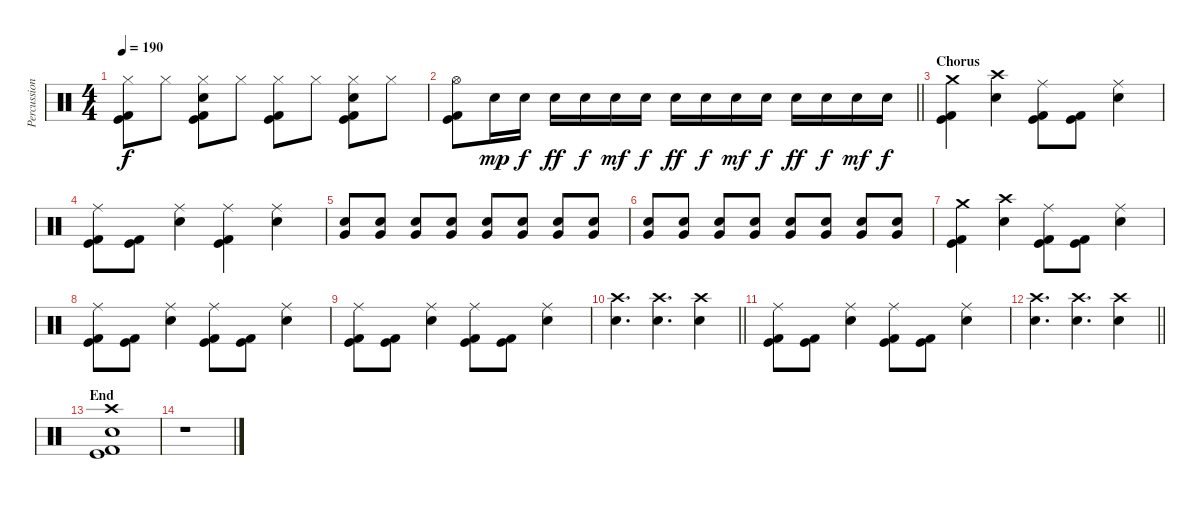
\track ("Percussion" "Percussion") {instrument percussion}
\staff {score}
\articulation defaults
\ts (4 4)
\tempo 190
\clef neutral
\ks c
("Hi-Hat (closed)" "Kick (hit)" "Kick (hit) 2").8{dy f} "Hi-Hat (closed)".8 ("Hi-Hat (closed)" "Electric Snare (hit)" "Kick (hit)" "Kick (hit) 2").8 "Hi-Hat (closed)".8 ("Hi-Hat (closed)" "Kick (hit)" "Kick (hit) 2").8 "Hi-Hat (closed)".8 ("Hi-Hat (closed)" "Electric Snare (hit)" "Kick (hit)" "Kick (hit) 2").8 "Hi-Hat (closed)".8 |
\barLineRight lightlight
("Hi-Hat (open)" "Kick (hit)" "Kick (hit) 2").8 "Electric Snare (hit)".16{dy mp} "Electric Snare (hit)".16{dy f} "Electric Snare (hit)".16{dy ff} "Electric Snare (hit)".16{dy f} "Electric Snare (hit)".16{dy mf} "Electric Snare (hit)".16{dy f} "Electric Snare (hit)".16{dy ff} "Electric Snare (hit)".16{dy f} "Electric Snare (hit)".16{dy mf} "Electric Snare (hit)".16{dy f} "Electric Snare (hit)".16{dy ff} "Electric Snare (hit)".16{dy f} "Electric Snare (hit)".16{dy mf} "Electric Snare (hit)".16{dy f} |
\section ("" "Chorus")
("Crash medium (hit)" "Kick (hit)" "Kick (hit) 2").4 ("Crash high (hit)" "Electric Snare (hit)").4 ("Ride (middle)" "Kick (hit)" "Kick (hit) 2").8 ("Kick (hit)" "Kick (hit) 2").8 ("Ride (middle)" "Electric Snare (hit)").4 |
("Ride (middle)" "Kick (hit)" "Kick (hit) 2").8 ("Kick (hit)" "Kick (hit) 2").8 ("Ride (middle)" "Electric Snare (hit)").4 ("Ride (middle)" "Kick (hit)" "Kick (hit) 2").4 ("Ride (middle)" "Electric Snare (hit)").4 |
("Very Low Tom (hit)" "Electric Snare (hit)").8 ("Very Low Tom (hit)" "Electric Snare (hit)").8 ("Very Low Tom (hit)" "Electric Snare (hit)").8 ("Very Low Tom (hit)" "Electric Snare (hit)").8 ("Very Low Tom (hit)" "Electric Snare (hit)").8 ("Very Low Tom (hit)" "Electric Snare (hit)").8 ("Very Low Tom (hit)" "Electric Snare (hit)").8 ("Very Low Tom (hit)" "Electric Snare (hit)").8 |
("Very Low Tom (hit)" "Electric Snare (hit)").8 ("Very Low Tom (hit)" "Electric Snare (hit)").8 ("Very Low Tom (hit)" "Electric Snare (hit)").8 ("Very Low Tom (hit)" "Electric Snare (hit)").8 ("Very Low Tom (hit)" "Electric Snare (hit)").8 ("Very Low Tom (hit)" "Electric Snare (hit)").8 ("Very Low Tom (hit)" "Electric Snare (hit)").8 ("Very Low Tom (hit)" "Electric Snare (hit)").8 |
("Crash medium (hit)" "Kick (hit)" "Kick (hit) 2").4 ("Crash high (hit)" "Electric Snare (hit)").4 ("Ride (middle)" "Kick (hit)" "Kick (hit) 2").8 ("Kick (hit)" "Kick (hit) 2").8 ("Ride (middle)" "Electric Snare (hit)").4 |
("Ride (middle)" "Kick (hit)" "Kick (hit) 2").8 ("Kick (hit)" "Kick (hit) 2").8 ("Ride (middle)" "Electric Snare (hit)").4 ("Ride (middle)" "Kick (hit)" "Kick (hit) 2").8 ("Kick (hit)" "Kick (hit) 2").8 ("Ride (middle)" "Electric Snare (hit)").4 |
("Ride (middle)" "Kick (hit)" "Kick (hit) 2").8 ("Kick (hit)" "Kick (hit) 2").8 ("Ride (middle)" "Electric Snare (hit)").4 ("Ride (middle)" "Kick (hit)" "Kick (hit) 2").8 ("Kick (hit)" "Kick (hit) 2").8 ("Ride (middle)" "Electric Snare (hit)").4 |
\barLineRight lightlight
("Crash high (hit)" "Electric Snare (hit)").4{d} ("Crash high (hit)" "Electric Snare (hit)").4{d} ("Crash high (hit)" "Electric Snare (hit)").4 |
("Ride (middle)" "Kick (hit)" "Kick (hit) 2").8 ("Kick (hit)" "Kick (hit) 2").8 ("Ride (middle)" "Electric Snare (hit)").4 ("Ride (middle)" "Kick (hit)" "Kick (hit) 2").8 ("Kick (hit)" "Kick (hit) 2").8 ("Ride (middle)" "Electric Snare (hit)").4 |
\barLineRight lightlight
("Crash high (hit)" "Electric Snare (hit)").4{d} ("Crash high (hit)" "Electric Snare (hit)").4{d} ("Crash high (hit)" "Electric Snare (hit)").4 |
\section ("" "End")
("Crash high (hit)" "Electric Snare (hit)" "Kick (hit)" "Kick (hit) 2").1 |
r.1
